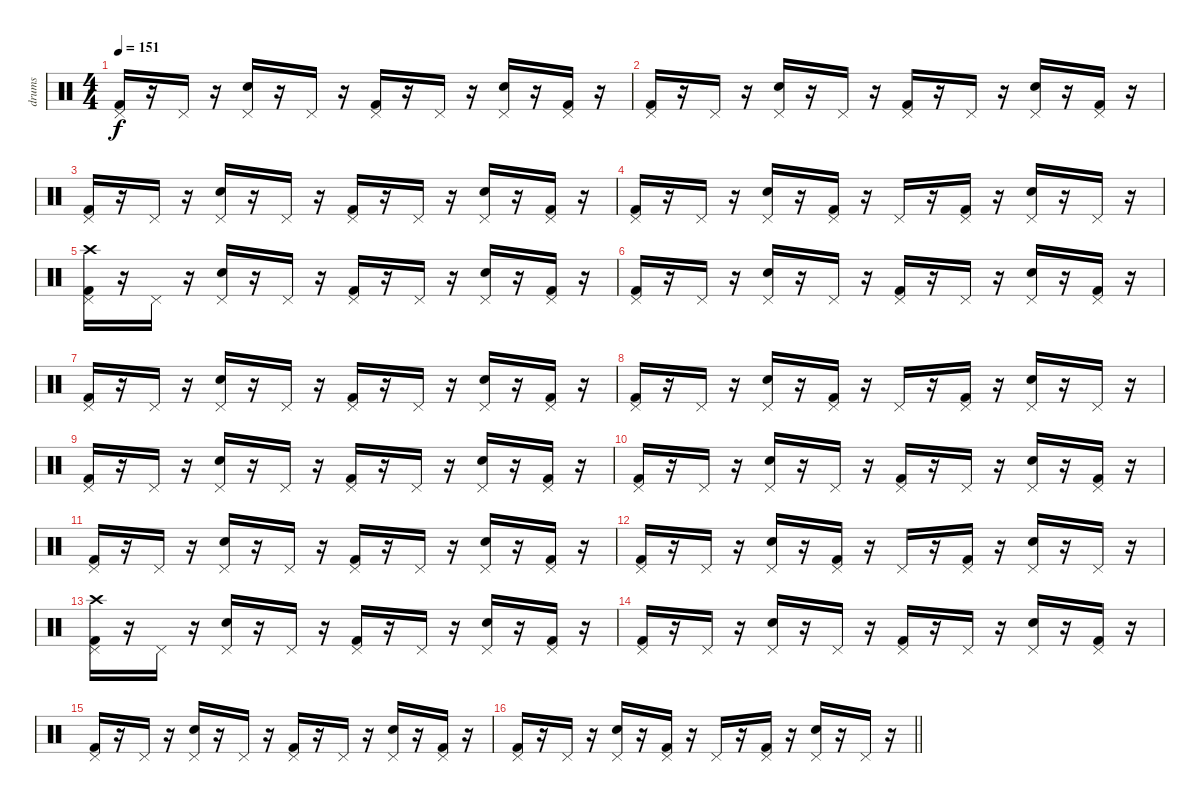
\track ("drums" "drums") {instrument percussion}
\staff {score}
\articulation defaults
\ts (4 4)
\tempo 151
\clef neutral
\ks c
("Kick (hit) 2" "Pedal Hi-Hat (hit)").16{dy f} r.16 "Pedal Hi-Hat (hit)".16 r.16 ("Electric Snare (hit)" "Pedal Hi-Hat (hit)").16 r.16 "Pedal Hi-Hat (hit)".16 r.16 ("Kick (hit) 2" "Pedal Hi-Hat (hit)").16 r.16 "Pedal Hi-Hat (hit)".16 r.16 ("Electric Snare (hit)" "Pedal Hi-Hat (hit)").16 r.16 ("Kick (hit) 2" "Pedal Hi-Hat (hit)").16 r.16 |
("Kick (hit) 2" "Pedal Hi-Hat (hit)").16 r.16 "Pedal Hi-Hat (hit)".16 r.16 ("Electric Snare (hit)" "Pedal Hi-Hat (hit)").16 r.16 "Pedal Hi-Hat (hit)".16 r.16 ("Kick (hit) 2" "Pedal Hi-Hat (hit)").16 r.16 "Pedal Hi-Hat (hit)".16 r.16 ("Electric Snare (hit)" "Pedal Hi-Hat (hit)").16 r.16 ("Kick (hit) 2" "Pedal Hi-Hat (hit)").16 r.16 |
("Kick (hit) 2" "Pedal Hi-Hat (hit)").16 r.16 "Pedal Hi-Hat (hit)".16 r.16 ("Electric Snare (hit)" "Pedal Hi-Hat (hit)").16 r.16 "Pedal Hi-Hat (hit)".16 r.16 ("Kick (hit) 2" "Pedal Hi-Hat (hit)").16 r.16 "Pedal Hi-Hat (hit)".16 r.16 ("Electric Snare (hit)" "Pedal Hi-Hat (hit)").16 r.16 ("Kick (hit) 2" "Pedal Hi-Hat (hit)").16 r.16 |
("Kick (hit) 2" "Pedal Hi-Hat (hit)").16 r.16 "Pedal Hi-Hat (hit)".16 r.16 ("Electric Snare (hit)" "Pedal Hi-Hat (hit)").16 r.16 ("Kick (hit) 2" "Pedal Hi-Hat (hit)").16 r.16 "Pedal Hi-Hat (hit)".16 r.16 ("Kick (hit) 2" "Pedal Hi-Hat (hit)").16 r.16 ("Electric Snare (hit)" "Pedal Hi-Hat (hit)").16 r.16 "Pedal Hi-Hat (hit)".16 r.16 |
("Kick (hit) 2" "Pedal Hi-Hat (hit)" "Crash high (hit)").16 r.16 "Pedal Hi-Hat (hit)".16 r.16 ("Electric Snare (hit)" "Pedal Hi-Hat (hit)").16 r.16 "Pedal Hi-Hat (hit)".16 r.16 ("Kick (hit) 2" "Pedal Hi-Hat (hit)").16 r.16 "Pedal Hi-Hat (hit)".16 r.16 ("Electric Snare (hit)" "Pedal Hi-Hat (hit)").16 r.16 ("Kick (hit) 2" "Pedal Hi-Hat (hit)").16 r.16 |
("Kick (hit) 2" "Pedal Hi-Hat (hit)").16 r.16 "Pedal Hi-Hat (hit)".16 r.16 ("Electric Snare (hit)" "Pedal Hi-Hat (hit)").16 r.16 "Pedal Hi-Hat (hit)".16 r.16 ("Kick (hit) 2" "Pedal Hi-Hat (hit)").16 r.16 "Pedal Hi-Hat (hit)".16 r.16 ("Electric Snare (hit)" "Pedal Hi-Hat (hit)").16 r.16 ("Kick (hit) 2" "Pedal Hi-Hat (hit)").16 r.16 |
("Kick (hit) 2" "Pedal Hi-Hat (hit)").16 r.16 "Pedal Hi-Hat (hit)".16 r.16 ("Electric Snare (hit)" "Pedal Hi-Hat (hit)").16 r.16 "Pedal Hi-Hat (hit)".16 r.16 ("Kick (hit) 2" "Pedal Hi-Hat (hit)").16 r.16 "Pedal Hi-Hat (hit)".16 r.16 ("Electric Snare (hit)" "Pedal Hi-Hat (hit)").16 r.16 ("Kick (hit) 2" "Pedal Hi-Hat (hit)").16 r.16 |
("Kick (hit) 2" "Pedal Hi-Hat (hit)").16 r.16 "Pedal Hi-Hat (hit)".16 r.16 ("Electric Snare (hit)" "Pedal Hi-Hat (hit)").16 r.16 ("Kick (hit) 2" "Pedal Hi-Hat (hit)").16 r.16 "Pedal Hi-Hat (hit)".16 r.16 ("Kick (hit) 2" "Pedal Hi-Hat (hit)").16 r.16 ("Electric Snare (hit)" "Pedal Hi-Hat (hit)").16 r.16 "Pedal Hi-Hat (hit)".16 r.16 |
("Kick (hit) 2" "Pedal Hi-Hat (hit)").16 r.16 "Pedal Hi-Hat (hit)".16 r.16 ("Electric Snare (hit)" "Pedal Hi-Hat (hit)").16 r.16 "Pedal Hi-Hat (hit)".16 r.16 ("Kick (hit) 2" "Pedal Hi-Hat (hit)").16 r.16 "Pedal Hi-Hat (hit)".16 r.16 ("Electric Snare (hit)" "Pedal Hi-Hat (hit)").16 r.16 ("Kick (hit) 2" "Pedal Hi-Hat (hit)").16 r.16 |
("Kick (hit) 2" "Pedal Hi-Hat (hit)").16 r.16 "Pedal Hi-Hat (hit)".16 r.16 ("Electric Snare (hit)" "Pedal Hi-Hat (hit)").16 r.16 "Pedal Hi-Hat (hit)".16 r.16 ("Kick (hit) 2" "Pedal Hi-Hat (hit)").16 r.16 "Pedal Hi-Hat (hit)".16 r.16 ("Electric Snare (hit)" "Pedal Hi-Hat (hit)").16 r.16 ("Kick (hit) 2" "Pedal Hi-Hat (hit)").16 r.16 |
("Kick (hit) 2" "Pedal Hi-Hat (hit)").16 r.16 "Pedal Hi-Hat (hit)".16 r.16 ("Electric Snare (hit)" "Pedal Hi-Hat (hit)").16 r.16 "Pedal Hi-Hat (hit)".16 r.16 ("Kick (hit) 2" "Pedal Hi-Hat (hit)").16 r.16 "Pedal Hi-Hat (hit)".16 r.16 ("Electric Snare (hit)" "Pedal Hi-Hat (hit)").16 r.16 ("Kick (hit) 2" "Pedal Hi-Hat (hit)").16 r.16 |
("Kick (hit) 2" "Pedal Hi-Hat (hit)").16 r.16 "Pedal Hi-Hat (hit)".16 r.16 ("Electric Snare (hit)" "Pedal Hi-Hat (hit)").16 r.16 ("Kick (hit) 2" "Pedal Hi-Hat (hit)").16 r.16 "Pedal Hi-Hat (hit)".16 r.16 ("Kick (hit) 2" "Pedal Hi-Hat (hit)").16 r.16 ("Electric Snare (hit)" "Pedal Hi-Hat (hit)").16 r.16 "Pedal Hi-Hat (hit)".16 r.16 |
("Kick (hit) 2" "Pedal Hi-Hat (hit)" "Crash high (hit)").16 r.16 "Pedal Hi-Hat (hit)".16 r.16 ("Electric Snare (hit)" "Pedal Hi-Hat (hit)").16 r.16 "Pedal Hi-Hat (hit)".16 r.16 ("Kick (hit) 2" "Pedal Hi-Hat (hit)").16 r.16 "Pedal Hi-Hat (hit)".16 r.16 ("Electric Snare (hit)" "Pedal Hi-Hat (hit)").16 r.16 ("Kick (hit) 2" "Pedal Hi-Hat (hit)").16 r.16 |
("Kick (hit) 2" "Pedal Hi-Hat (hit)").16 r.16 "Pedal Hi-Hat (hit)".16 r.16 ("Electric Snare (hit)" "Pedal Hi-Hat (hit)").16 r.16 "Pedal Hi-Hat (hit)".16 r.16 ("Kick (hit) 2" "Pedal Hi-Hat (hit)").16 r.16 "Pedal Hi-Hat (hit)".16 r.16 ("Electric Snare (hit)" "Pedal Hi-Hat (hit)").16 r.16 ("Kick (hit) 2" "Pedal Hi-Hat (hit)").16 r.16 |
("Kick (hit) 2" "Pedal Hi-Hat (hit)").16 r.16 "Pedal Hi-Hat (hit)".16 r.16 ("Electric Snare (hit)" "Pedal Hi-Hat (hit)").16 r.16 "Pedal Hi-Hat (hit)".16 r.16 ("Kick (hit) 2" "Pedal Hi-Hat (hit)").16 r.16 "Pedal Hi-Hat (hit)".16 r.16 ("Electric Snare (hit)" "Pedal Hi-Hat (hit)").16 r.16 ("Kick (hit) 2" "Pedal Hi-Hat (hit)").16 r.16 |
\barLineRight lightlight
("Kick (hit) 2" "Pedal Hi-Hat (hit)").16 r.16 "Pedal Hi-Hat (hit)".16 r.16 ("Electric Snare (hit)" "Pedal Hi-Hat (hit)").16 r.16 ("Kick (hit) 2" "Pedal Hi-Hat (hit)").16 r.16 "Pedal Hi-Hat (hit)".16 r.16 ("Kick (hit) 2" "Pedal Hi-Hat (hit)").16 r.16 ("Electric Snare (hit)" "Pedal Hi-Hat (hit)").16 r.16 "Pedal Hi-Hat (hit)".16 r.16
